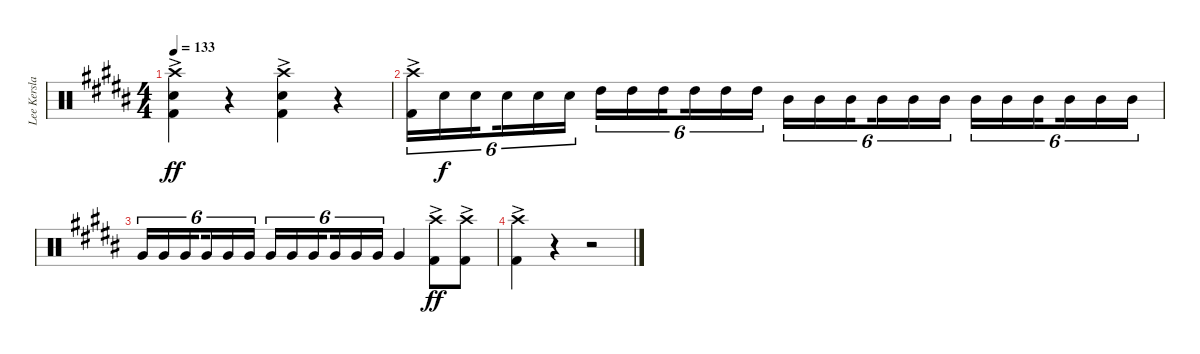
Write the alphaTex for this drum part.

\track ("Lee Kerslake" "Lee Kersla") {instrument percussion}
\staff {score}
\articulation defaults
\ts (4 4)
\tempo 133
\clef neutral
\ks b
("Kick (hit) 2" "Snare (hit) 2" "Crash high (hit)"{ac}).4{dy ff} r.4 ("Kick (hit) 2" "Snare (hit) 2" "Crash high (hit)"{ac}).4 r.4 |
("Kick (hit) 2" "Crash high (hit)"{ac}).16{tu (6 4)} "Snare (hit) 2".16{tu (6 4) dy f} "Snare (hit) 2".16{tu (6 4) beam splitsecondary} "Snare (hit) 2".16{tu (6 4)} "Snare (hit) 2".16{tu (6 4)} "Snare (hit) 2".16{tu (6 4)} "High Tom (hit)".16{tu (6 4)} "High Tom (hit)".16{tu (6 4)} "High Tom (hit)".16{tu (6 4) beam splitsecondary} "High Tom (hit)".16{tu (6 4)} "High Tom (hit)".16{tu (6 4)} "High Tom (hit)".16{tu (6 4)} "Mid Tom (hit)".16{tu (6 4)} "Mid Tom (hit)".16{tu (6 4)} "Mid Tom (hit)".16{tu (6 4) beam splitsecondary} "Mid Tom (hit)".16{tu (6 4)} "Mid Tom (hit)".16{tu (6 4)} "Mid Tom (hit)".16{tu (6 4)} "Mid Tom (hit)".16{tu (6 4)} "Mid Tom (hit)".16{tu (6 4)} "Mid Tom (hit)".16{tu (6 4) beam splitsecondary} "Mid Tom (hit)".16{tu (6 4)} "Mid Tom (hit)".16{tu (6 4)} "Mid Tom (hit)".16{tu (6 4)} |
"Very Low Tom (hit)".16{tu (6 4)} "Very Low Tom (hit)".16{tu (6 4)} "Very Low Tom (hit)".16{tu (6 4) beam splitsecondary} "Very Low Tom (hit)".16{tu (6 4)} "Very Low Tom (hit)".16{tu (6 4)} "Very Low Tom (hit)".16{tu (6 4)} "Very Low Tom (hit)".16{tu (6 4)} "Very Low Tom (hit)".16{tu (6 4)} "Very Low Tom (hit)".16{tu (6 4) beam splitsecondary} "Very Low Tom (hit)".16{tu (6 4)} "Very Low Tom (hit)".16{tu (6 4)} "Very Low Tom (hit)".16{tu (6 4)} "Very Low Tom (hit)".4 ("Kick (hit) 2" "Crash high (hit)"{ac}).8{dy ff} ("Kick (hit) 2" "Crash high (hit)"{ac}).8 |
("Kick (hit) 2" "Crash high (hit)"{ac}).4 r.4 r.2
